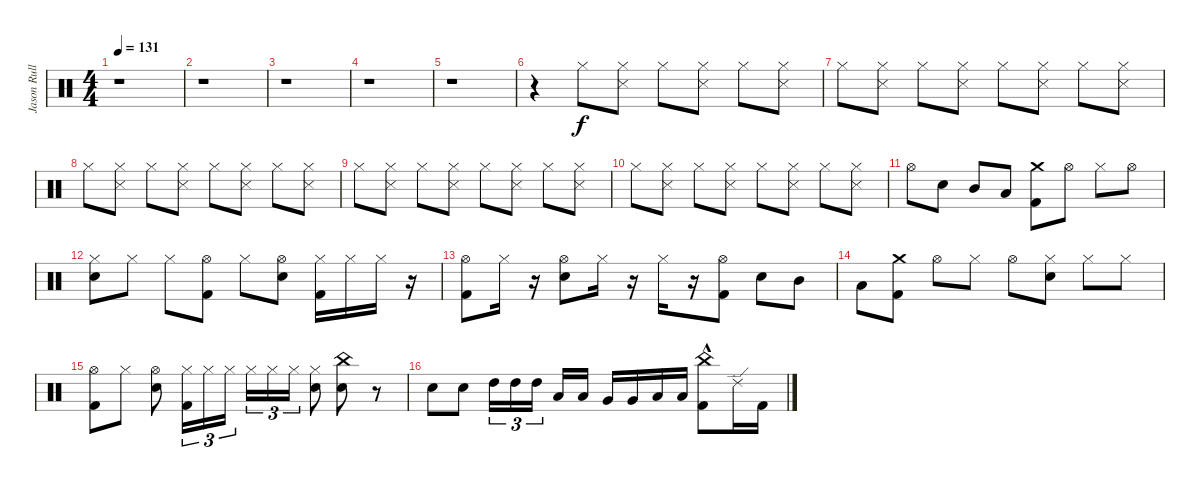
\track ("Jason Rullo (Drums)" "Jason Rull") {instrument percussion}
\staff {score}
\articulation defaults
\ts (4 4)
\tempo 131
\clef neutral
\ks c
r.1{dy f} |
r.1 |
r.1 |
r.1 |
r.1 |
r.4 "Hi-Hat (closed)".8 ("Metronome (hit)" "Hi-Hat (closed)").8 "Hi-Hat (closed)".8 ("Metronome (hit)" "Hi-Hat (closed)").8 "Hi-Hat (closed)".8 ("Metronome (hit)" "Hi-Hat (closed)").8 |
"Hi-Hat (closed)".8 ("Metronome (hit)" "Hi-Hat (closed)").8 "Hi-Hat (closed)".8 ("Metronome (hit)" "Hi-Hat (closed)").8 "Hi-Hat (closed)".8 ("Metronome (hit)" "Hi-Hat (closed)").8 "Hi-Hat (closed)".8 ("Metronome (hit)" "Hi-Hat (closed)").8 |
"Hi-Hat (closed)".8 ("Metronome (hit)" "Hi-Hat (closed)").8 "Hi-Hat (closed)".8 ("Metronome (hit)" "Hi-Hat (closed)").8 "Hi-Hat (closed)".8 ("Metronome (hit)" "Hi-Hat (closed)").8 "Hi-Hat (closed)".8 ("Metronome (hit)" "Hi-Hat (closed)").8 |
"Hi-Hat (closed)".8 ("Metronome (hit)" "Hi-Hat (closed)").8 "Hi-Hat (closed)".8 ("Metronome (hit)" "Hi-Hat (closed)").8 "Hi-Hat (closed)".8 ("Metronome (hit)" "Hi-Hat (closed)").8 "Hi-Hat (closed)".8 ("Metronome (hit)" "Hi-Hat (closed)").8 |
"Hi-Hat (closed)".8 ("Metronome (hit)" "Hi-Hat (closed)").8 "Hi-Hat (closed)".8 ("Metronome (hit)" "Hi-Hat (closed)").8 "Hi-Hat (closed)".8 ("Metronome (hit)" "Hi-Hat (closed)").8 "Hi-Hat (closed)".8 ("Metronome (hit)" "Hi-Hat (closed)").8 |
"Hi-Hat (open)".8 "Electric Snare (hit)".8 "Mid Tom (hit)".8 "Low Tom (hit)".8 ("Crash medium (hit)" "Kick (hit) 2").8 "Hi-Hat (open)".8 "Hi-Hat (closed)".8 "Hi-Hat (open)".8 |
("Hi-Hat (closed)" "Electric Snare (hit)").8 "Hi-Hat (closed)".8 "Hi-Hat (closed)".8 ("Hi-Hat (open)" "Kick (hit) 2").8 "Hi-Hat (closed)".8 ("Hi-Hat (open)" "Electric Snare (hit)").8 ("Hi-Hat (closed)" "Kick (hit) 2").16 "Hi-Hat (closed)".16 "Hi-Hat (closed)".16 r.16 |
("Hi-Hat (open)" "Kick (hit) 2").8 "Hi-Hat (closed)".16 r.16 ("Hi-Hat (open)" "Electric Snare (hit)").8 "Hi-Hat (closed)".16 r.16 "Hi-Hat (closed)".16 r.16 ("Hi-Hat (open)" "Kick (hit) 2").8 "Electric Snare (hit)".8 "Mid Tom (hit)".8 |
"Low Tom (hit)".8 ("Crash medium (hit)" "Kick (hit) 2").8 "Hi-Hat (open)".8 "Hi-Hat (closed)".8 "Hi-Hat (open)".8 ("Hi-Hat (closed)" "Electric Snare (hit)").8 "Hi-Hat (closed)".8 "Hi-Hat (closed)".8 |
("Hi-Hat (open)" "Kick (hit) 2").8 "Hi-Hat (closed)".8 ("Hi-Hat (open)" "Electric Snare (hit)").8 ("Kick (hit) 2" "Hi-Hat (closed)").16{tu (3 2)} "Hi-Hat (closed)".16{tu (3 2)} "Hi-Hat (closed)".16{tu (3 2)} "Hi-Hat (closed)".16{tu (3 2)} "Hi-Hat (closed)".16{tu (3 2)} "Hi-Hat (closed)".16{tu (3 2)} ("Electric Snare (hit)" "Hi-Hat (closed)").8 ("China (hit)" "Electric Snare (hit)").8 r.8 |
"Electric Snare (hit)".8 "Electric Snare (hit)".8 "High Tom (hit)".16{tu (3 2) volume 9} "High Tom (hit)".16{tu (3 2) volume 12} "High Tom (hit)".16{tu (3 2) volume 15} "Low Tom (hit)".16{volume 16} "Low Tom (hit)".16 "Very Low Tom (hit)".16 "Very Low Tom (hit)".16 "Low Floor Tom (hit)".16 "Low Floor Tom (hit)".16 ("Kick (hit) 2"{hac} "China (hit)").8 "Ride (edge) 2".16 "Kick (hit) 2".16
